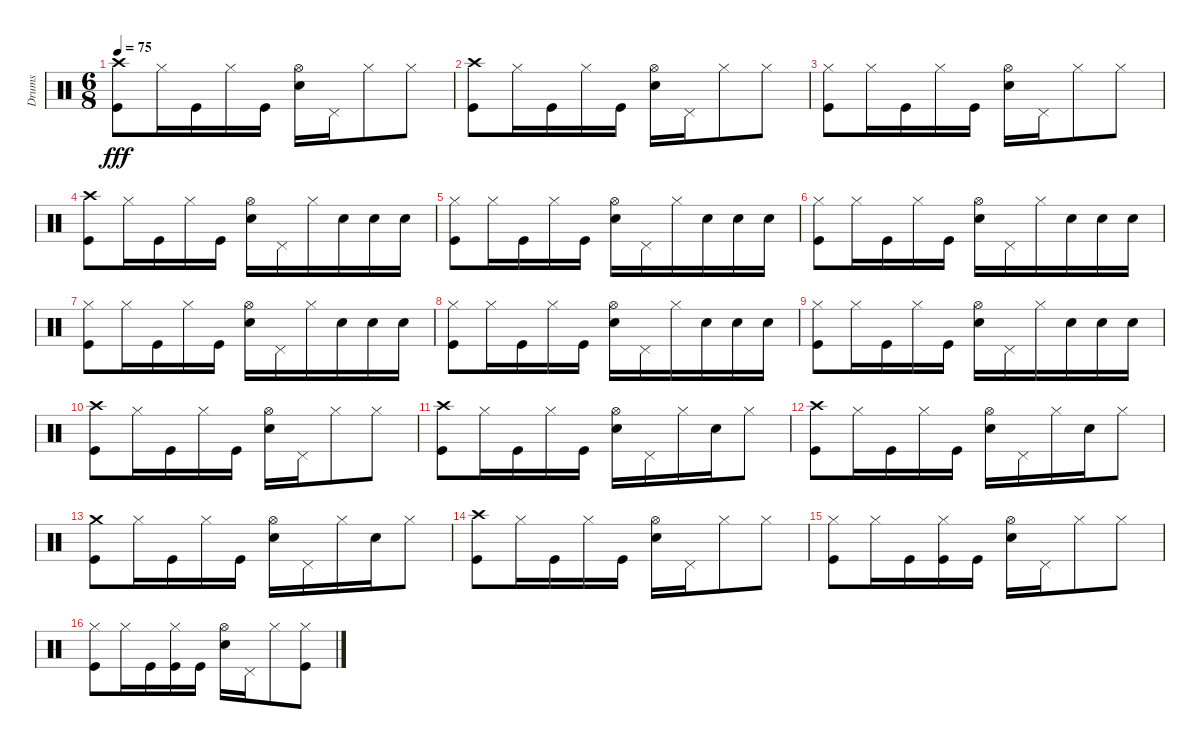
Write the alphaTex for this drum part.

\track ("Drums" "Drums") {instrument percussion}
\staff {score}
\articulation defaults
\ts (6 8)
\tempo 75
\clef neutral
\ks c
("Crash high (hit)" "Kick (hit)").8{dy fff} "Hi-Hat (closed)".16 "Kick (hit)".16 "Hi-Hat (closed)".16 "Kick (hit)".16 ("Hi-Hat (open)" "Snare (hit) 2").16 "Pedal Hi-Hat (hit)".16 "Hi-Hat (closed)".8 "Hi-Hat (closed)".8 |
("Crash high (hit)" "Kick (hit)").8 "Hi-Hat (closed)".16 "Kick (hit)".16 "Hi-Hat (closed)".16 "Kick (hit)".16 ("Hi-Hat (open)" "Snare (hit) 2").16 "Pedal Hi-Hat (hit)".16 "Hi-Hat (closed)".8 "Hi-Hat (closed)".8 |
("Hi-Hat (closed)" "Kick (hit)").8 "Hi-Hat (closed)".16 "Kick (hit)".16 "Hi-Hat (closed)".16 "Kick (hit)".16 ("Hi-Hat (open)" "Snare (hit) 2").16 "Pedal Hi-Hat (hit)".16 "Hi-Hat (closed)".8 "Hi-Hat (closed)".8 |
("Crash high (hit)" "Kick (hit)").8 "Hi-Hat (closed)".16 "Kick (hit)".16 "Hi-Hat (closed)".16 "Kick (hit)".16 ("Hi-Hat (open)" "Snare (hit) 2").16 "Pedal Hi-Hat (hit)".16 "Hi-Hat (closed)".16 "Snare (hit) 2".16 "Snare (hit) 2".16 "Snare (hit) 2".16 |
("Hi-Hat (closed)" "Kick (hit)").8 "Hi-Hat (closed)".16 "Kick (hit)".16 "Hi-Hat (closed)".16 "Kick (hit)".16 ("Hi-Hat (open)" "Snare (hit) 2").16 "Pedal Hi-Hat (hit)".16 "Hi-Hat (closed)".16 "Snare (hit) 2".16 "Snare (hit) 2".16 "Snare (hit) 2".16 |
("Hi-Hat (closed)" "Kick (hit)").8 "Hi-Hat (closed)".16 "Kick (hit)".16 "Hi-Hat (closed)".16 "Kick (hit)".16 ("Hi-Hat (open)" "Snare (hit) 2").16 "Pedal Hi-Hat (hit)".16 "Hi-Hat (closed)".16 "Snare (hit) 2".16 "Snare (hit) 2".16 "Snare (hit) 2".16 |
("Hi-Hat (closed)" "Kick (hit)").8 "Hi-Hat (closed)".16 "Kick (hit)".16 "Hi-Hat (closed)".16 "Kick (hit)".16 ("Hi-Hat (open)" "Snare (hit) 2").16 "Pedal Hi-Hat (hit)".16 "Hi-Hat (closed)".16 "Snare (hit) 2".16 "Snare (hit) 2".16 "Snare (hit) 2".16 |
("Hi-Hat (closed)" "Kick (hit)").8 "Hi-Hat (closed)".16 "Kick (hit)".16 "Hi-Hat (closed)".16 "Kick (hit)".16 ("Hi-Hat (open)" "Snare (hit) 2").16 "Pedal Hi-Hat (hit)".16 "Hi-Hat (closed)".16 "Snare (hit) 2".16 "Snare (hit) 2".16 "Snare (hit) 2".16 |
("Hi-Hat (closed)" "Kick (hit)").8 "Hi-Hat (closed)".16 "Kick (hit)".16 "Hi-Hat (closed)".16 "Kick (hit)".16 ("Hi-Hat (open)" "Snare (hit) 2").16 "Pedal Hi-Hat (hit)".16 "Hi-Hat (closed)".16 "Snare (hit) 2".16 "Snare (hit) 2".16 "Snare (hit) 2".16 |
("Crash high (hit)" "Kick (hit)").8 "Hi-Hat (closed)".16 "Kick (hit)".16 "Hi-Hat (closed)".16 "Kick (hit)".16 ("Hi-Hat (open)" "Snare (hit) 2").16 "Pedal Hi-Hat (hit)".16 "Hi-Hat (closed)".8 "Hi-Hat (closed)".8 |
("Crash high (hit)" "Kick (hit)").8 "Hi-Hat (closed)".16 "Kick (hit)".16 "Hi-Hat (closed)".16 "Kick (hit)".16 ("Hi-Hat (open)" "Snare (hit) 2").16 "Pedal Hi-Hat (hit)".16 "Hi-Hat (closed)".16 "Snare (hit) 2".16 "Hi-Hat (closed)".8 |
("Crash high (hit)" "Kick (hit)").8 "Hi-Hat (closed)".16 "Kick (hit)".16 "Hi-Hat (closed)".16 "Kick (hit)".16 ("Hi-Hat (open)" "Snare (hit) 2").16 "Pedal Hi-Hat (hit)".16 "Hi-Hat (closed)".16 "Snare (hit) 2".16 "Hi-Hat (closed)".8 |
("Crash medium (hit)" "Kick (hit)").8 "Hi-Hat (closed)".16 "Kick (hit)".16 "Hi-Hat (closed)".16 "Kick (hit)".16 ("Hi-Hat (open)" "Snare (hit) 2").16 "Pedal Hi-Hat (hit)".16 "Hi-Hat (closed)".16 "Snare (hit) 2".16 "Hi-Hat (closed)".8 |
("Crash high (hit)" "Kick (hit)").8 "Hi-Hat (closed)".16 "Kick (hit)".16 "Hi-Hat (closed)".16 "Kick (hit)".16 ("Hi-Hat (open)" "Snare (hit) 2").16 "Pedal Hi-Hat (hit)".16 "Hi-Hat (closed)".8 "Hi-Hat (closed)".8 |
("Hi-Hat (closed)" "Kick (hit)").8 "Hi-Hat (closed)".16 "Kick (hit)".16 ("Hi-Hat (closed)" "Kick (hit)").16 "Kick (hit)".16 ("Hi-Hat (open)" "Snare (hit) 2").16 "Pedal Hi-Hat (hit)".16 "Hi-Hat (closed)".8 "Hi-Hat (closed)".8 |
("Hi-Hat (closed)" "Kick (hit)").8 "Hi-Hat (closed)".16 "Kick (hit)".16 ("Hi-Hat (closed)" "Kick (hit)").16 "Kick (hit)".16 ("Hi-Hat (open)" "Snare (hit) 2").16 "Pedal Hi-Hat (hit)".16 "Hi-Hat (closed)".8 ("Hi-Hat (closed)" "Kick (hit)").8
